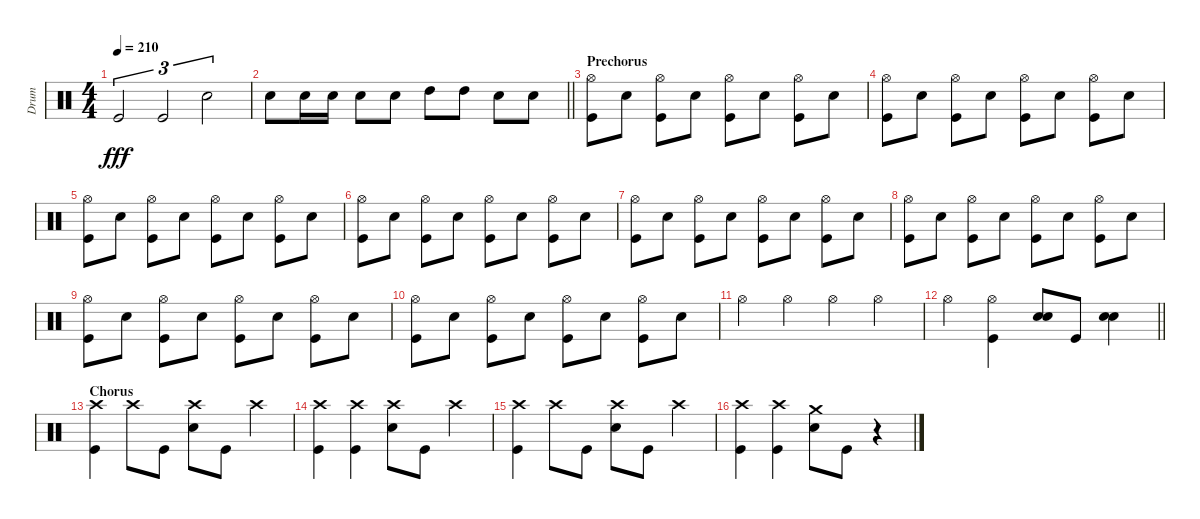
\track ("Drum" "Drum") {instrument percussion}
\staff
\articulation defaults
\ts (4 4)
\tempo 210
\clef neutral
\ks c "Kick (hit)".2{tu (3 2) dy fff} "Kick (hit)".2{tu (3 2)} "Snare (hit) 2".2{tu (3 2)}
|
\barLineRight lightlight "Snare (hit) 2".8 "Snare (hit) 2".16 "Snare (hit) 2".16 "Snare (hit) 2".8 "Snare (hit) 2".8 "High Tom (hit)".8 "High Tom (hit)".8 "Snare (hit) 2".8 "Snare (hit) 2".8
|
\section ("" "Prechorus")
("Hi-Hat (open)" "Kick (hit)").8 "Snare (hit) 2".8 ("Hi-Hat (open)" "Kick (hit)").8 "Snare (hit) 2".8 ("Hi-Hat (open)" "Kick (hit)").8 "Snare (hit) 2".8 ("Hi-Hat (open)" "Kick (hit)").8 "Snare (hit) 2".8 |
("Hi-Hat (open)" "Kick (hit)").8 "Snare (hit) 2".8 ("Hi-Hat (open)" "Kick (hit)").8 "Snare (hit) 2".8 ("Hi-Hat (open)" "Kick (hit)").8 "Snare (hit) 2".8 ("Hi-Hat (open)" "Kick (hit)").8 "Snare (hit) 2".8 |
("Hi-Hat (open)" "Kick (hit)").8 "Snare (hit) 2".8 ("Hi-Hat (open)" "Kick (hit)").8 "Snare (hit) 2".8 ("Hi-Hat (open)" "Kick (hit)").8 "Snare (hit) 2".8 ("Hi-Hat (open)" "Kick (hit)").8 "Snare (hit) 2".8 |
("Hi-Hat (open)" "Kick (hit)").8 "Snare (hit) 2".8 ("Hi-Hat (open)" "Kick (hit)").8 "Snare (hit) 2".8 ("Hi-Hat (open)" "Kick (hit)").8 "Snare (hit) 2".8 ("Hi-Hat (open)" "Kick (hit)").8 "Snare (hit) 2".8 |
("Hi-Hat (open)" "Kick (hit)").8 "Snare (hit) 2".8 ("Hi-Hat (open)" "Kick (hit)").8 "Snare (hit) 2".8 ("Hi-Hat (open)" "Kick (hit)").8 "Snare (hit) 2".8 ("Hi-Hat (open)" "Kick (hit)").8 "Snare (hit) 2".8 |
("Hi-Hat (open)" "Kick (hit)").8 "Snare (hit) 2".8 ("Hi-Hat (open)" "Kick (hit)").8 "Snare (hit) 2".8 ("Hi-Hat (open)" "Kick (hit)").8 "Snare (hit) 2".8 ("Hi-Hat (open)" "Kick (hit)").8 "Snare (hit) 2".8 |
("Hi-Hat (open)" "Kick (hit)").8 "Snare (hit) 2".8 ("Hi-Hat (open)" "Kick (hit)").8 "Snare (hit) 2".8 ("Hi-Hat (open)" "Kick (hit)").8 "Snare (hit) 2".8 ("Hi-Hat (open)" "Kick (hit)").8 "Snare (hit) 2".8 |
("Hi-Hat (open)" "Kick (hit)").8 "Snare (hit) 2".8 ("Hi-Hat (open)" "Kick (hit)").8 "Snare (hit) 2".8 ("Hi-Hat (open)" "Kick (hit)").8 "Snare (hit) 2".8 ("Hi-Hat (open)" "Kick (hit)").8 "Snare (hit) 2".8 |
"Hi-Hat (open)".4 "Hi-Hat (open)".4 "Hi-Hat (open)".4 "Hi-Hat (open)".4 |
\barLineRight lightlight "Hi-Hat (open)".4
("Hi-Hat (open)" "Kick (hit)").4 ("Snare (hit) 2" "Snare (hit) 2").8 "Kick (hit)".8 ("Snare (hit) 2" "Snare (hit) 2").4 |
\section ("" "Chorus")
("Crash high (hit)" "Kick (hit)").4 "Crash high (hit)".8 "Kick (hit)".8 ("Crash high (hit)" "Snare (hit) 2").8 "Kick (hit)".8 "Crash high (hit)".4 |
("Crash high (hit)" "Kick (hit)").4 ("Crash high (hit)" "Kick (hit)").4 ("Crash high (hit)" "Snare (hit) 2").8 "Kick (hit)".8 "Crash high (hit)".4 |
("Crash high (hit)" "Kick (hit)").4 "Crash high (hit)".8 "Kick (hit)".8 ("Crash high (hit)" "Snare (hit) 2").8 "Kick (hit)".8 "Crash high (hit)".4 |
("Crash high (hit)" "Kick (hit)").4 ("Crash high (hit)" "Kick (hit)").4 ("Crash medium (hit)" "Snare (hit) 2").8 "Kick (hit)".8 r.4
